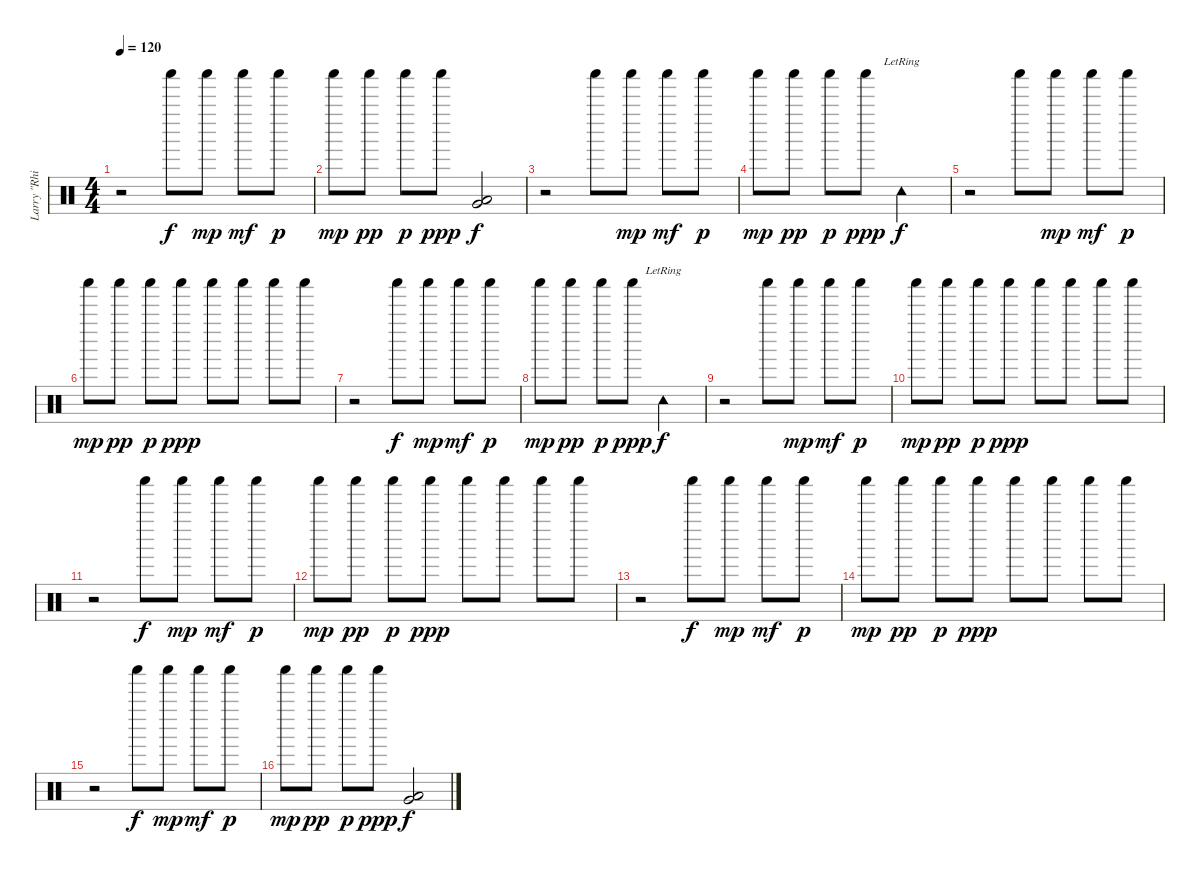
\track ("Larry \"Rhino\" Rheinhart" "Larry \"Rhi") {instrument percussion}
\staff {score}
\articulation defaults
\ts (4 4)
\tempo 120
\clef neutral
\ks c
r.2{dy f} "Shaker (hit)".8{balance 0} "Shaker (hit)".8{dy mp balance 16} "Shaker (hit)".8{dy mf balance 0} "Shaker (hit)".8{dy p balance 16} |
"Shaker (hit)".8{dy mp balance 0} "Shaker (hit)".8{dy pp balance 16} "Shaker (hit)".8{dy p balance 0} "Shaker (hit)".8{dy ppp balance 16} ("Very Low Tom (hit)" "Low Floor Tom (hit)").2{dy f balance 13} |
r.2 "Shaker (hit)".8{balance 0} "Shaker (hit)".8{dy mp balance 16} "Shaker (hit)".8{dy mf balance 0} "Shaker (hit)".8{dy p balance 16} |
"Shaker (hit)".8{dy mp balance 0} "Shaker (hit)".8{dy pp balance 16} "Shaker (hit)".8{dy p balance 0} "Shaker (hit)".8{dy ppp balance 16} "Tambourine (hit)"{lr}.2{dy f balance 8} |
r.2 "Shaker (hit)".8{balance 0} "Shaker (hit)".8{dy mp balance 16} "Shaker (hit)".8{dy mf balance 0} "Shaker (hit)".8{dy p balance 16} |
"Shaker (hit)".8{dy mp balance 0} "Shaker (hit)".8{dy pp balance 16} "Shaker (hit)".8{dy p balance 0} "Shaker (hit)".8{dy ppp balance 16} "Shaker (hit)".8{balance 0} "Shaker (hit)".8{balance 0} "Shaker (hit)".8{balance 0} "Shaker (hit)".8 |
r.2 "Shaker (hit)".8{dy f balance 0} "Shaker (hit)".8{dy mp balance 16} "Shaker (hit)".8{dy mf balance 0} "Shaker (hit)".8{dy p balance 16} |
"Shaker (hit)".8{dy mp balance 0} "Shaker (hit)".8{dy pp balance 16} "Shaker (hit)".8{dy p balance 0} "Shaker (hit)".8{dy ppp balance 16} "Tambourine (hit)"{lr}.2{dy f balance 8} |
r.2 "Shaker (hit)".8{balance 0} "Shaker (hit)".8{dy mp balance 16} "Shaker (hit)".8{dy mf balance 0} "Shaker (hit)".8{dy p balance 16} |
"Shaker (hit)".8{dy mp balance 0} "Shaker (hit)".8{dy pp balance 16} "Shaker (hit)".8{dy p balance 0} "Shaker (hit)".8{dy ppp balance 16} "Shaker (hit)".8{balance 0} "Shaker (hit)".8{balance 0} "Shaker (hit)".8{balance 0} "Shaker (hit)".8 |
r.2 "Shaker (hit)".8{dy f balance 0} "Shaker (hit)".8{dy mp balance 16} "Shaker (hit)".8{dy mf balance 0} "Shaker (hit)".8{dy p balance 16} |
"Shaker (hit)".8{dy mp balance 0} "Shaker (hit)".8{dy pp balance 16} "Shaker (hit)".8{dy p balance 0} "Shaker (hit)".8{dy ppp balance 16} "Shaker (hit)".8{balance 0} "Shaker (hit)".8{balance 0} "Shaker (hit)".8{balance 0} "Shaker (hit)".8 |
r.2 "Shaker (hit)".8{dy f balance 0} "Shaker (hit)".8{dy mp balance 16} "Shaker (hit)".8{dy mf balance 0} "Shaker (hit)".8{dy p balance 16} |
"Shaker (hit)".8{dy mp balance 0} "Shaker (hit)".8{dy pp balance 16} "Shaker (hit)".8{dy p balance 0} "Shaker (hit)".8{dy ppp balance 16} "Shaker (hit)".8{balance 0} "Shaker (hit)".8{balance 0} "Shaker (hit)".8{balance 0} "Shaker (hit)".8 |
r.2 "Shaker (hit)".8{dy f balance 0} "Shaker (hit)".8{dy mp balance 16} "Shaker (hit)".8{dy mf balance 0} "Shaker (hit)".8{dy p balance 16} |
"Shaker (hit)".8{dy mp balance 0} "Shaker (hit)".8{dy pp balance 16} "Shaker (hit)".8{dy p balance 0} "Shaker (hit)".8{dy ppp balance 16} ("Very Low Tom (hit)" "Low Floor Tom (hit)").2{dy f balance 13}
